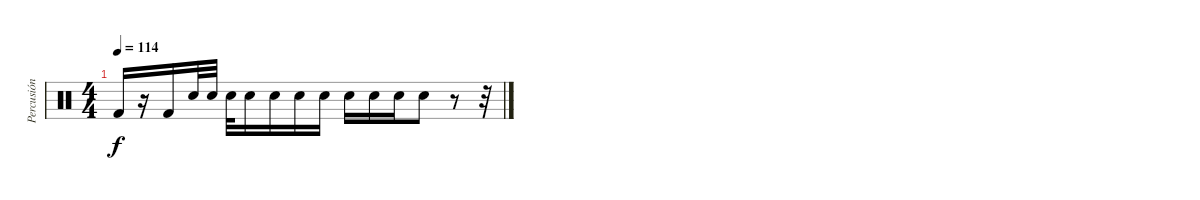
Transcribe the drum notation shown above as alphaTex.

\track ("Percusión" "Percusión") {instrument percussion}
\staff {score}
\articulation defaults
\ts (4 4)
\tempo 114
\clef neutral
\ks c "Kick (hit) 2".16{dy f}
r.16 "Kick (hit) 2".16 "Snare (hit) 2".32 "Snare (hit) 2".32 "Snare (hit) 2".32 "Snare (hit) 2".16 "Snare (hit) 2".16 "Snare (hit) 2".16 "Snare (hit) 2".16 "Snare (hit) 2".16 "Snare (hit) 2".16 "Snare (hit) 2".16 "Snare (hit) 2".8 r.8 r.32
